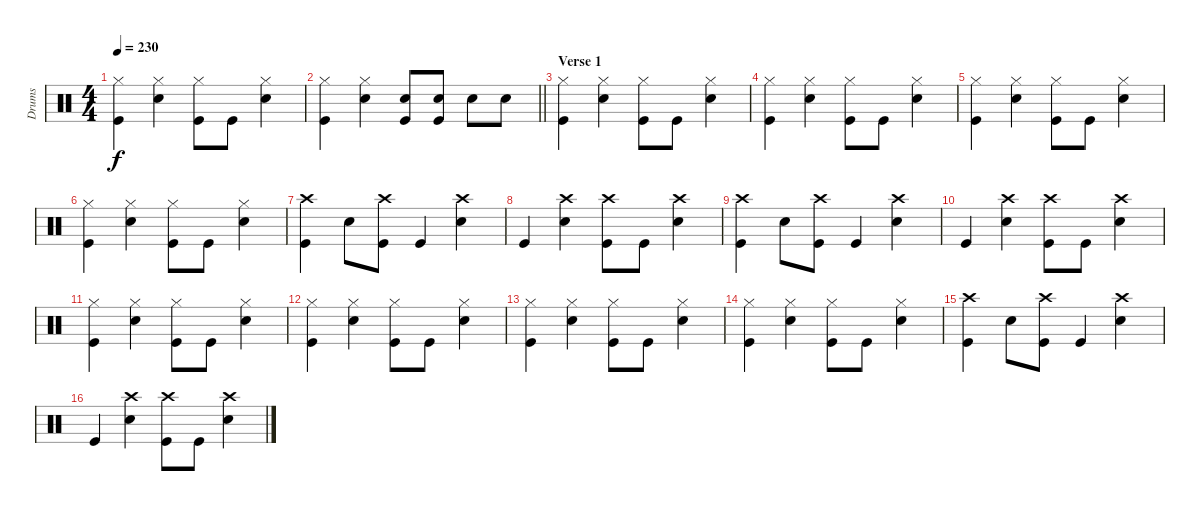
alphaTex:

\track ("Drums" "Drums") {instrument percussion}
\staff {score}
\articulation defaults
\ts (4 4)
\tempo 230
\clef neutral
\ks c
("Hi-Hat (closed)" "Kick (hit)").4{dy f} ("Hi-Hat (closed)" "Snare (hit) 2").4 ("Hi-Hat (closed)" "Kick (hit)").8 "Kick (hit)".8 ("Hi-Hat (closed)" "Snare (hit) 2").4 |
\barLineRight lightlight
("Hi-Hat (closed)" "Kick (hit)").4 ("Hi-Hat (closed)" "Snare (hit) 2").4 ("Snare (hit) 2" "Kick (hit)").8 ("Snare (hit) 2" "Kick (hit)").8 "Snare (hit) 2".8 "Snare (hit) 2".8 |
\section ("" "Verse 1")
("Hi-Hat (closed)" "Kick (hit)").4 ("Hi-Hat (closed)" "Snare (hit) 2").4 ("Hi-Hat (closed)" "Kick (hit)").8 "Kick (hit)".8 ("Hi-Hat (closed)" "Snare (hit) 2").4 |
("Hi-Hat (closed)" "Kick (hit)").4 ("Hi-Hat (closed)" "Snare (hit) 2").4 ("Hi-Hat (closed)" "Kick (hit)").8 "Kick (hit)".8 ("Hi-Hat (closed)" "Snare (hit) 2").4 |
("Hi-Hat (closed)" "Kick (hit)").4 ("Hi-Hat (closed)" "Snare (hit) 2").4 ("Hi-Hat (closed)" "Kick (hit)").8 "Kick (hit)".8 ("Hi-Hat (closed)" "Snare (hit) 2").4 |
("Hi-Hat (closed)" "Kick (hit)").4 ("Hi-Hat (closed)" "Snare (hit) 2").4 ("Hi-Hat (closed)" "Kick (hit)").8 "Kick (hit)".8 ("Hi-Hat (closed)" "Snare (hit) 2").4 |
("Crash high (hit)" "Kick (hit)").4 "Snare (hit) 2".8 ("Crash high (hit)" "Kick (hit)").8 "Kick (hit)".4 ("Crash high (hit)" "Snare (hit) 2").4 |
"Kick (hit)".4 ("Crash high (hit)" "Snare (hit) 2").4 ("Crash high (hit)" "Kick (hit)").8 "Kick (hit)".8 ("Crash high (hit)" "Snare (hit) 2").4 |
("Crash high (hit)" "Kick (hit)").4 "Snare (hit) 2".8 ("Crash high (hit)" "Kick (hit)").8 "Kick (hit)".4 ("Crash high (hit)" "Snare (hit) 2").4 |
"Kick (hit)".4 ("Crash high (hit)" "Snare (hit) 2").4 ("Crash high (hit)" "Kick (hit)").8 "Kick (hit)".8 ("Crash high (hit)" "Snare (hit) 2").4 |
("Hi-Hat (closed)" "Kick (hit)").4 ("Hi-Hat (closed)" "Snare (hit) 2").4 ("Hi-Hat (closed)" "Kick (hit)").8 "Kick (hit)".8 ("Hi-Hat (closed)" "Snare (hit) 2").4 |
("Hi-Hat (closed)" "Kick (hit)").4 ("Hi-Hat (closed)" "Snare (hit) 2").4 ("Hi-Hat (closed)" "Kick (hit)").8 "Kick (hit)".8 ("Hi-Hat (closed)" "Snare (hit) 2").4 |
("Hi-Hat (closed)" "Kick (hit)").4 ("Hi-Hat (closed)" "Snare (hit) 2").4 ("Hi-Hat (closed)" "Kick (hit)").8 "Kick (hit)".8 ("Hi-Hat (closed)" "Snare (hit) 2").4 |
("Hi-Hat (closed)" "Kick (hit)").4 ("Hi-Hat (closed)" "Snare (hit) 2").4 ("Hi-Hat (closed)" "Kick (hit)").8 "Kick (hit)".8 ("Hi-Hat (closed)" "Snare (hit) 2").4 |
("Crash high (hit)" "Kick (hit)").4 "Snare (hit) 2".8 ("Crash high (hit)" "Kick (hit)").8 "Kick (hit)".4 ("Crash high (hit)" "Snare (hit) 2").4 |
"Kick (hit)".4 ("Crash high (hit)" "Snare (hit) 2").4 ("Crash high (hit)" "Kick (hit)").8 "Kick (hit)".8 ("Crash high (hit)" "Snare (hit) 2").4
